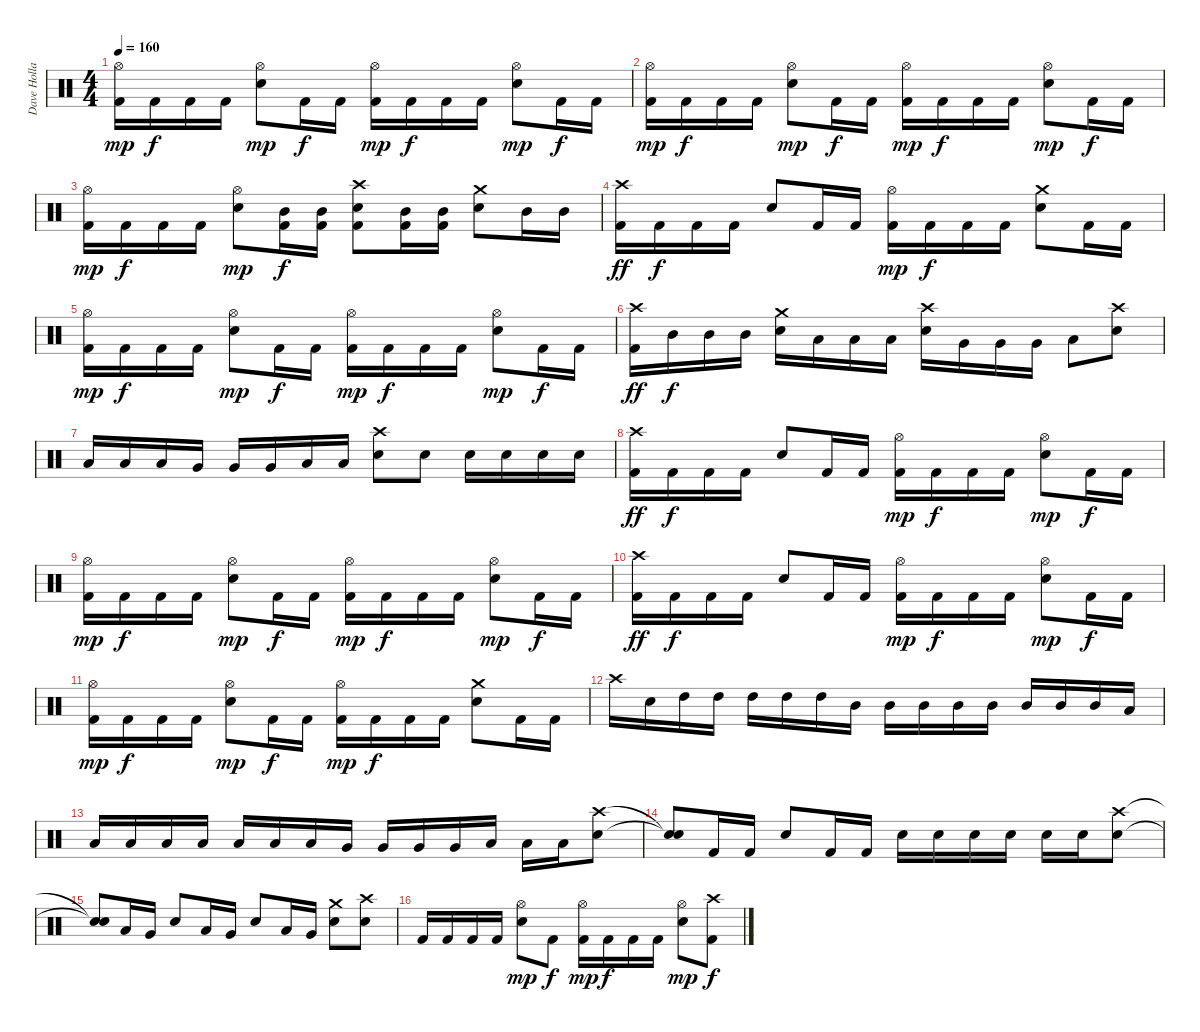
\track ("Dave Holland" "Dave Holla") {instrument percussion}
\staff {score}
\articulation defaults
\ts (4 4)
\tempo 160
\clef neutral
\ks c
("Kick (hit) 2" "Hi-Hat (open)").16{dy mp} "Kick (hit) 2".16{dy f} "Kick (hit) 2".16 "Kick (hit) 2".16 ("Hi-Hat (open)" "Snare (hit) 2").8{dy mp} "Kick (hit) 2".16{dy f} "Kick (hit) 2".16 ("Kick (hit) 2" "Hi-Hat (open)").16{dy mp} "Kick (hit) 2".16{dy f} "Kick (hit) 2".16 "Kick (hit) 2".16 ("Hi-Hat (open)" "Snare (hit) 2").8{dy mp} "Kick (hit) 2".16{dy f} "Kick (hit) 2".16 |
("Kick (hit) 2" "Hi-Hat (open)").16{dy mp} "Kick (hit) 2".16{dy f} "Kick (hit) 2".16 "Kick (hit) 2".16 ("Hi-Hat (open)" "Snare (hit) 2").8{dy mp} "Kick (hit) 2".16{dy f} "Kick (hit) 2".16 ("Kick (hit) 2" "Hi-Hat (open)").16{dy mp} "Kick (hit) 2".16{dy f} "Kick (hit) 2".16 "Kick (hit) 2".16 ("Hi-Hat (open)" "Snare (hit) 2").8{dy mp} "Kick (hit) 2".16{dy f} "Kick (hit) 2".16 |
("Kick (hit) 2" "Hi-Hat (open)").16{dy mp} "Kick (hit) 2".16{dy f} "Kick (hit) 2".16 "Kick (hit) 2".16 ("Hi-Hat (open)" "Snare (hit) 2").8{dy mp} ("Kick (hit) 2" "Mid Tom (hit)").16{dy f} ("Kick (hit) 2" "Mid Tom (hit)").16 ("Kick (hit) 2" "Crash high (hit)" "Snare (hit) 2").8 ("Kick (hit) 2" "Mid Tom (hit)").16 ("Kick (hit) 2" "Mid Tom (hit)").16 ("Crash medium (hit)" "Snare (hit) 2").8 "Mid Tom (hit)".16 "Mid Tom (hit)".16 |
("Kick (hit) 2" "Crash high (hit)").16{dy ff} "Kick (hit) 2".16{dy f} "Kick (hit) 2".16 "Kick (hit) 2".16 "Snare (hit) 2".8 "Kick (hit) 2".16 "Kick (hit) 2".16 ("Kick (hit) 2" "Hi-Hat (open)").16{dy mp} "Kick (hit) 2".16{dy f} "Kick (hit) 2".16 "Kick (hit) 2".16 ("Crash medium (hit)" "Snare (hit) 2").8 "Kick (hit) 2".16 "Kick (hit) 2".16 |
("Kick (hit) 2" "Hi-Hat (open)").16{dy mp} "Kick (hit) 2".16{dy f} "Kick (hit) 2".16 "Kick (hit) 2".16 ("Hi-Hat (open)" "Snare (hit) 2").8{dy mp} "Kick (hit) 2".16{dy f} "Kick (hit) 2".16 ("Kick (hit) 2" "Hi-Hat (open)").16{dy mp} "Kick (hit) 2".16{dy f} "Kick (hit) 2".16 "Kick (hit) 2".16 ("Hi-Hat (open)" "Snare (hit) 2").8{dy mp} "Kick (hit) 2".16{dy f} "Kick (hit) 2".16 |
("Kick (hit) 2" "Crash high (hit)").16{dy ff} "Mid Tom (hit)".16{dy f} "Mid Tom (hit)".16 "Mid Tom (hit)".16 ("Crash medium (hit)" "Snare (hit) 2").16 "Low Tom (hit)".16 "Low Tom (hit)".16 "Low Tom (hit)".16 ("Crash high (hit)" "Snare (hit) 2").16 "Very Low Tom (hit)".16 "Very Low Tom (hit)".16 "Very Low Tom (hit)".16 "Low Floor Tom (hit)".8 ("Crash high (hit)" "Snare (hit) 2").8 |
"Low Tom (hit)".16 "Low Tom (hit)".16 "Low Tom (hit)".16 "Very Low Tom (hit)".16 "Very Low Tom (hit)".16 "Very Low Tom (hit)".16 "Low Floor Tom (hit)".16 "Low Floor Tom (hit)".16 ("Crash high (hit)" "Snare (hit) 2").8 "Snare (hit) 2".8 "Snare (hit) 2".16 "Snare (hit) 2".16 "Snare (hit) 2".16 "Snare (hit) 2".16 |
("Kick (hit) 2" "Crash high (hit)").16{dy ff} "Kick (hit) 2".16{dy f} "Kick (hit) 2".16 "Kick (hit) 2".16 "Snare (hit) 2".8 "Kick (hit) 2".16 "Kick (hit) 2".16 ("Kick (hit) 2" "Hi-Hat (open)").16{dy mp} "Kick (hit) 2".16{dy f} "Kick (hit) 2".16 "Kick (hit) 2".16 ("Hi-Hat (open)" "Snare (hit) 2").8{dy mp} "Kick (hit) 2".16{dy f} "Kick (hit) 2".16 |
("Kick (hit) 2" "Hi-Hat (open)").16{dy mp} "Kick (hit) 2".16{dy f} "Kick (hit) 2".16 "Kick (hit) 2".16 ("Hi-Hat (open)" "Snare (hit) 2").8{dy mp} "Kick (hit) 2".16{dy f} "Kick (hit) 2".16 ("Kick (hit) 2" "Hi-Hat (open)").16{dy mp} "Kick (hit) 2".16{dy f} "Kick (hit) 2".16 "Kick (hit) 2".16 ("Hi-Hat (open)" "Snare (hit) 2").8{dy mp} "Kick (hit) 2".16{dy f} "Kick (hit) 2".16 |
("Kick (hit) 2" "Crash high (hit)").16{dy ff} "Kick (hit) 2".16{dy f} "Kick (hit) 2".16 "Kick (hit) 2".16 "Snare (hit) 2".8 "Kick (hit) 2".16 "Kick (hit) 2".16 ("Kick (hit) 2" "Hi-Hat (open)").16{dy mp} "Kick (hit) 2".16{dy f} "Kick (hit) 2".16 "Kick (hit) 2".16 ("Hi-Hat (open)" "Snare (hit) 2").8{dy mp} "Kick (hit) 2".16{dy f} "Kick (hit) 2".16 |
("Kick (hit) 2" "Hi-Hat (open)").16{dy mp} "Kick (hit) 2".16{dy f} "Kick (hit) 2".16 "Kick (hit) 2".16 ("Hi-Hat (open)" "Snare (hit) 2").8{dy mp} "Kick (hit) 2".16{dy f} "Kick (hit) 2".16 ("Kick (hit) 2" "Hi-Hat (open)").16{dy mp} "Kick (hit) 2".16{dy f} "Kick (hit) 2".16 "Kick (hit) 2".16 ("Crash medium (hit)" "Snare (hit) 2").8 "Kick (hit) 2".16 "Kick (hit) 2".16 |
"Crash high (hit)".16 "Snare (hit) 2".16 "High Tom (hit)".16 "High Tom (hit)".16 "High Tom (hit)".16 "High Tom (hit)".16 "High Tom (hit)".16 "Mid Tom (hit)".16 "Mid Tom (hit)".16 "Mid Tom (hit)".16 "Mid Tom (hit)".16 "Mid Tom (hit)".16 "Mid Tom (hit)".16 "Mid Tom (hit)".16 "Mid Tom (hit)".16 "Low Tom (hit)".16 |
"Low Tom (hit)".16 "Low Tom (hit)".16 "Low Tom (hit)".16 "Low Tom (hit)".16 "Low Tom (hit)".16 "Low Tom (hit)".16 "Low Tom (hit)".16 "Very Low Tom (hit)".16 "Very Low Tom (hit)".16 "Very Low Tom (hit)".16 "Very Low Tom (hit)".16 "Low Floor Tom (hit)".16 "Low Floor Tom (hit)".16 "Low Floor Tom (hit)".16 ("Crash high (hit)" "Snare (hit) 2").8 |
("Snare (hit)"{t} "Snare (hit)"{t}).8 "Kick (hit) 2".16 "Kick (hit) 2".16 "Snare (hit) 2".8 "Kick (hit) 2".16 "Kick (hit) 2".16 "Snare (hit) 2".16 "Snare (hit) 2".16 "Snare (hit) 2".16 "Snare (hit) 2".16 "Snare (hit) 2".16 "Snare (hit) 2".16 ("Crash high (hit)" "Snare (hit) 2").8 |
("Snare (hit)"{t} "Snare (hit)"{t}).8 "Low Tom (hit)".16 "Very Low Tom (hit)".16 "Snare (hit) 2".8 "Low Tom (hit)".16 "Very Low Tom (hit)".16 "Snare (hit) 2".8 "Low Tom (hit)".16 "Very Low Tom (hit)".16 ("Crash medium (hit)" "Snare (hit) 2").8 ("Crash high (hit)" "Snare (hit) 2").8 |
"Kick (hit) 2".16 "Kick (hit) 2".16 "Kick (hit) 2".16 "Kick (hit) 2".16 ("Hi-Hat (open)" "Snare (hit) 2").8{dy mp} "Kick (hit) 2".8{dy f} ("Kick (hit) 2" "Hi-Hat (open)").16{dy mp} "Kick (hit) 2".16{dy f} "Kick (hit) 2".16 "Kick (hit) 2".16 ("Hi-Hat (open)" "Snare (hit) 2").8{dy mp} ("Kick (hit) 2" "Crash high (hit)").8{dy f}
